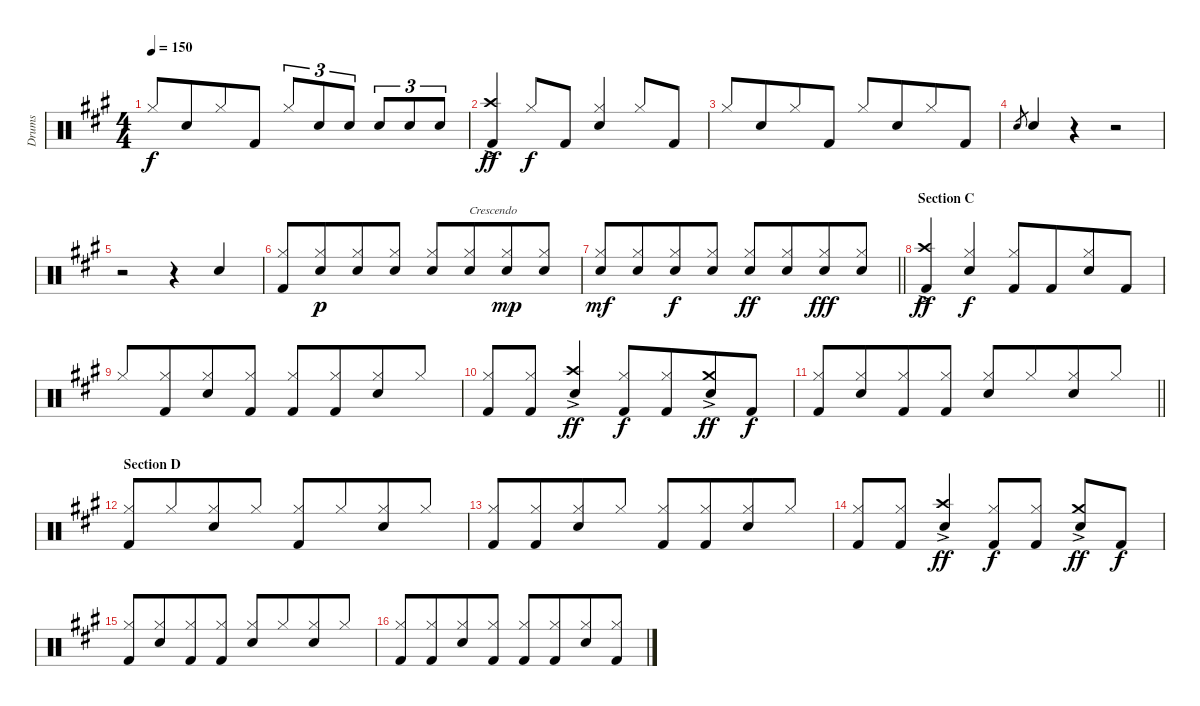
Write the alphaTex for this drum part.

\track ("Drums" "Drums") {instrument percussion}
\staff {score}
\articulation defaults
\ts (4 4)
\tempo 150
\clef neutral
\ks a "Hi-Hat (closed)".8{dy f beam Up} "Snare (hit) 2".8{beam Up beam merge} "Hi-Hat (closed)".8{beam Up} "Kick (hit) 2".8{beam Up} "Hi-Hat (closed)".8{tu (3 2) beam Up} "Snare (hit) 2".8{tu (3 2) beam Up} "Snare (hit) 2".8{tu (3 2) beam Up} "Snare (hit) 2".8{tu (3 2) beam Up} "Snare (hit) 2".8{tu (3 2) beam Up} "Snare (hit) 2".8{tu (3 2) beam Up}
|
("Crash high (hit)"{ac} "Kick (hit) 2").4{dy ff beam Up} "Hi-Hat (closed)".8{dy f beam Up} "Kick (hit) 2".8{beam Up} ("Hi-Hat (closed)" "Snare (hit) 2").4{beam Up} "Hi-Hat (closed)".8{beam Up} "Kick (hit) 2".8{beam Up} |
"Hi-Hat (closed)".8{beam Up} "Snare (hit) 2".8{beam Up beam merge} "Hi-Hat (closed)".8{beam Up} "Kick (hit) 2".8{beam Up} "Hi-Hat (closed)".8{beam Up} "Snare (hit) 2".8{beam Up beam merge} "Hi-Hat (closed)".8{beam Up} "Kick (hit) 2".8{beam Up} |
"Snare (hit) 2".8{gr} "Snare (hit) 2".4{beam Up} r.4 r.2 |
r.2 r.4 "Snare (hit) 2".4{beam Up} |
("Hi-Hat (closed)" "Kick (hit) 2").8{beam Up} ("Hi-Hat (closed)" "Snare (hit) 2").8{dy p beam Up beam merge} ("Hi-Hat (closed)" "Snare (hit) 2").8{beam Up} ("Hi-Hat (closed)" "Snare (hit) 2").8{beam Up} ("Hi-Hat (closed)" "Snare (hit) 2").8{beam Up} ("Hi-Hat (closed)" "Snare (hit) 2").8{txt "Crescendo" beam Up beam merge} ("Hi-Hat (closed)" "Snare (hit) 2").8{dy mp beam Up} ("Hi-Hat (closed)" "Snare (hit) 2").8{beam Up} |
\barLineRight lightlight
("Hi-Hat (closed)" "Snare (hit) 2").8{dy mf beam Up} ("Hi-Hat (closed)" "Snare (hit) 2").8{beam Up beam merge} ("Hi-Hat (closed)" "Snare (hit) 2").8{dy f beam Up} ("Hi-Hat (closed)" "Snare (hit) 2").8{beam Up} ("Hi-Hat (closed)" "Snare (hit) 2").8{dy ff beam Up} ("Hi-Hat (closed)" "Snare (hit) 2").8{beam Up beam merge} ("Hi-Hat (closed)" "Snare (hit) 2").8{dy fff beam Up} ("Hi-Hat (closed)" "Snare (hit) 2").8{beam Up} |
\section ("" "Section C")
("Crash high (hit)"{ac} "Kick (hit) 2").4{dy ff beam Up} ("Hi-Hat (closed)" "Snare (hit) 2").4{dy f beam Up} ("Hi-Hat (closed)" "Kick (hit) 2").8{beam Up} "Kick (hit) 2".8{beam Up beam merge} ("Hi-Hat (closed)" "Snare (hit) 2").8{beam Up} "Kick (hit) 2".8{beam Up} |
"Hi-Hat (closed)".8{beam Up} ("Hi-Hat (closed)" "Kick (hit) 2").8{beam Up beam merge} ("Hi-Hat (closed)" "Snare (hit) 2").8{beam Up} ("Hi-Hat (closed)" "Kick (hit) 2").8{beam Up} ("Hi-Hat (closed)" "Kick (hit) 2").8{beam Up} ("Hi-Hat (closed)" "Kick (hit) 2").8{beam Up beam merge} ("Hi-Hat (closed)" "Snare (hit) 2").8{beam Up} "Hi-Hat (closed)".8{beam Up} |
("Hi-Hat (closed)" "Kick (hit) 2").8{beam Up} ("Hi-Hat (closed)" "Kick (hit) 2").8{beam Up} ("Crash high (hit)"{ac} "Snare (hit) 2").4{dy ff beam Up} ("Hi-Hat (closed)" "Kick (hit) 2").8{dy f beam Up} ("Hi-Hat (closed)" "Kick (hit) 2").8{beam Up beam merge} ("Crash medium (hit)"{ac} "Snare (hit) 2").8{dy ff beam Up} "Kick (hit) 2".8{dy f beam Up} |
\barLineRight lightlight
("Hi-Hat (closed)" "Kick (hit) 2").8{beam Up} ("Hi-Hat (closed)" "Snare (hit) 2").8{beam Up beam merge} ("Hi-Hat (closed)" "Kick (hit) 2").8{beam Up} ("Hi-Hat (closed)" "Kick (hit) 2").8{beam Up} ("Hi-Hat (closed)" "Snare (hit) 2").8{beam Up} "Hi-Hat (closed)".8{beam Up beam merge} ("Hi-Hat (closed)" "Snare (hit) 2").8{beam Up} "Hi-Hat (closed)".8{beam Up} |
\section ("" "Section D")
("Hi-Hat (closed)" "Kick (hit) 2").8{beam Up} "Hi-Hat (closed)".8{beam Up beam merge} ("Hi-Hat (closed)" "Snare (hit) 2").8{beam Up} "Hi-Hat (closed)".8{beam Up} ("Hi-Hat (closed)" "Kick (hit) 2").8{beam Up} "Hi-Hat (closed)".8{beam Up beam merge} ("Hi-Hat (closed)" "Snare (hit) 2").8{beam Up} "Hi-Hat (closed)".8{beam Up} |
("Hi-Hat (closed)" "Kick (hit) 2").8{beam Up} ("Hi-Hat (closed)" "Kick (hit) 2").8{beam Up beam merge} ("Hi-Hat (closed)" "Snare (hit) 2").8{beam Up} "Hi-Hat (closed)".8{beam Up} ("Hi-Hat (closed)" "Kick (hit) 2").8{beam Up} ("Hi-Hat (closed)" "Kick (hit) 2").8{beam Up beam merge} ("Hi-Hat (closed)" "Snare (hit) 2").8{beam Up} "Hi-Hat (closed)".8{beam Up} |
("Hi-Hat (closed)" "Kick (hit) 2").8{beam Up} ("Hi-Hat (closed)" "Kick (hit) 2").8{beam Up} ("Crash high (hit)"{ac} "Snare (hit) 2").4{dy ff beam Up} ("Hi-Hat (closed)" "Kick (hit) 2").8{dy f beam Up} ("Hi-Hat (closed)" "Kick (hit) 2").8{beam Up} ("Crash medium (hit)"{ac} "Snare (hit) 2").8{dy ff beam Up} "Kick (hit) 2".8{dy f beam Up} |
("Hi-Hat (closed)" "Kick (hit) 2").8{beam Up} ("Hi-Hat (closed)" "Snare (hit) 2").8{beam Up beam merge} ("Hi-Hat (closed)" "Kick (hit) 2").8{beam Up} ("Hi-Hat (closed)" "Kick (hit) 2").8{beam Up} ("Hi-Hat (closed)" "Snare (hit) 2").8{beam Up} "Hi-Hat (closed)".8{beam Up beam merge} ("Hi-Hat (closed)" "Snare (hit) 2").8{beam Up} "Hi-Hat (closed)".8{beam Up} |
("Hi-Hat (closed)" "Kick (hit) 2").8{beam Up} ("Hi-Hat (closed)" "Kick (hit) 2").8{beam Up beam merge} ("Hi-Hat (closed)" "Snare (hit) 2").8{beam Up} ("Hi-Hat (closed)" "Kick (hit) 2").8{beam Up} ("Hi-Hat (closed)" "Kick (hit) 2").8{beam Up} ("Hi-Hat (closed)" "Kick (hit) 2").8{beam Up beam merge} ("Hi-Hat (closed)" "Snare (hit) 2").8{beam Up} ("Hi-Hat (closed)" "Kick (hit) 2").8{beam Up}
